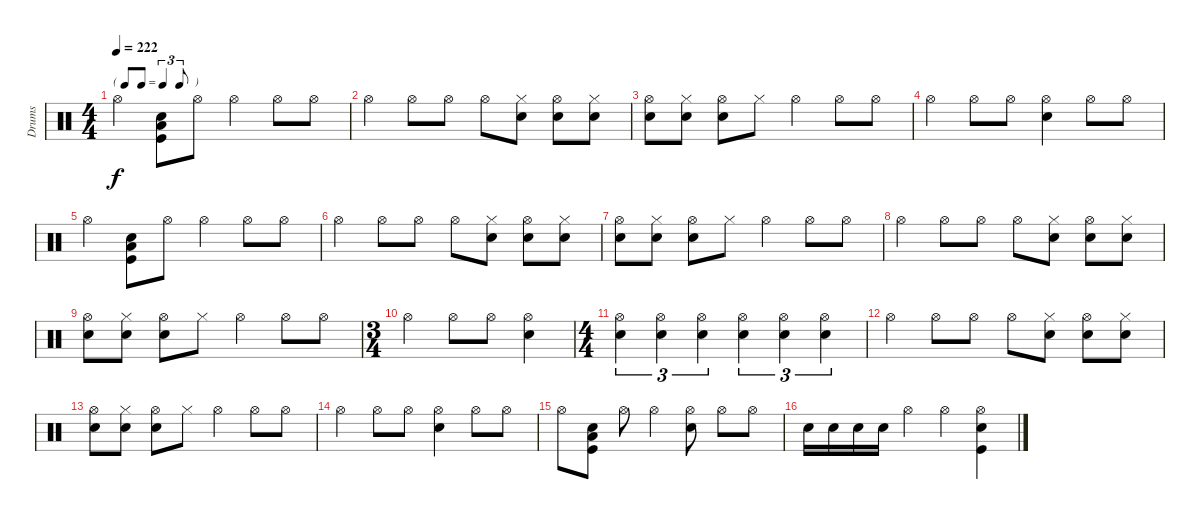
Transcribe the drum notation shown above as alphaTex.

\track ("Drums" "Drums") {instrument percussion}
\staff {score}
\articulation defaults
\ts (4 4)
\tf triplet8th
\tempo 222
\clef neutral
\ks c "Hi-Hat (open)".4{dy f}
("Kick (hit)" "Snare (hit) 2" "Low Floor Tom (hit)").8 "Hi-Hat (open)".8 "Hi-Hat (open)".4 "Hi-Hat (open)".8 "Hi-Hat (open)".8 |
"Hi-Hat (open)".4 "Hi-Hat (open)".8 "Hi-Hat (open)".8 "Hi-Hat (open)".8 ("Hi-Hat (closed)" "Snare (hit) 2").8 ("Snare (hit) 2" "Hi-Hat (open)").8 ("Hi-Hat (closed)" "Snare (hit) 2").8 |
("Snare (hit) 2" "Hi-Hat (open)").8 ("Snare (hit) 2" "Hi-Hat (closed)").8 ("Snare (hit) 2" "Hi-Hat (open)").8 "Hi-Hat (closed)".8 "Hi-Hat (open)".4 "Hi-Hat (open)".8 "Hi-Hat (open)".8 |
"Hi-Hat (open)".4 "Hi-Hat (open)".8 "Hi-Hat (open)".8 ("Snare (hit) 2" "Hi-Hat (open)").4 "Hi-Hat (open)".8 "Hi-Hat (open)".8 |
"Hi-Hat (open)".4 ("Kick (hit)" "Snare (hit) 2" "Low Floor Tom (hit)").8 "Hi-Hat (open)".8 "Hi-Hat (open)".4 "Hi-Hat (open)".8 "Hi-Hat (open)".8 |
"Hi-Hat (open)".4 "Hi-Hat (open)".8 "Hi-Hat (open)".8 "Hi-Hat (open)".8 ("Hi-Hat (closed)" "Snare (hit) 2").8 ("Snare (hit) 2" "Hi-Hat (open)").8 ("Hi-Hat (closed)" "Snare (hit) 2").8 |
("Snare (hit) 2" "Hi-Hat (open)").8 ("Snare (hit) 2" "Hi-Hat (closed)").8 ("Snare (hit) 2" "Hi-Hat (open)").8 "Hi-Hat (closed)".8 "Hi-Hat (open)".4 "Hi-Hat (open)".8 "Hi-Hat (open)".8 |
"Hi-Hat (open)".4 "Hi-Hat (open)".8 "Hi-Hat (open)".8 "Hi-Hat (open)".8 ("Hi-Hat (closed)" "Snare (hit) 2").8 ("Snare (hit) 2" "Hi-Hat (open)").8 ("Hi-Hat (closed)" "Snare (hit) 2").8 |
("Snare (hit) 2" "Hi-Hat (open)").8 ("Snare (hit) 2" "Hi-Hat (closed)").8 ("Snare (hit) 2" "Hi-Hat (open)").8 "Hi-Hat (closed)".8 "Hi-Hat (open)".4 "Hi-Hat (open)".8 "Hi-Hat (open)".8 |
\ts (3 4)
"Hi-Hat (open)".4 "Hi-Hat (open)".8 "Hi-Hat (open)".8 ("Snare (hit) 2" "Hi-Hat (open)").4 |
\ts (4 4)
("Hi-Hat (open)" "Snare (hit) 2").4{tu (3 2)} ("Hi-Hat (open)" "Snare (hit) 2").4{tu (3 2)} ("Hi-Hat (open)" "Snare (hit) 2").4{tu (3 2)} ("Hi-Hat (open)" "Snare (hit) 2").4{tu (3 2)} ("Hi-Hat (open)" "Snare (hit) 2").4{tu (3 2)} ("Hi-Hat (open)" "Snare (hit) 2").4{tu (3 2)} |
"Hi-Hat (open)".4 "Hi-Hat (open)".8 "Hi-Hat (open)".8 "Hi-Hat (open)".8 ("Hi-Hat (closed)" "Snare (hit) 2").8 ("Snare (hit) 2" "Hi-Hat (open)").8 ("Hi-Hat (closed)" "Snare (hit) 2").8 |
("Snare (hit) 2" "Hi-Hat (open)").8 ("Snare (hit) 2" "Hi-Hat (closed)").8 ("Snare (hit) 2" "Hi-Hat (open)").8 "Hi-Hat (closed)".8 "Hi-Hat (open)".4 "Hi-Hat (open)".8 "Hi-Hat (open)".8 |
"Hi-Hat (open)".4 "Hi-Hat (open)".8 "Hi-Hat (open)".8 ("Snare (hit) 2" "Hi-Hat (open)").4 "Hi-Hat (open)".8 "Hi-Hat (open)".8 |
"Hi-Hat (open)".8 ("Kick (hit)" "Snare (hit) 2" "Low Floor Tom (hit)").8 "Hi-Hat (open)".8 "Hi-Hat (open)".4 ("Snare (hit) 2" "Hi-Hat (open)").8 "Hi-Hat (open)".8 "Hi-Hat (open)".8 |
"Snare (hit) 2".16 "Snare (hit) 2".16 "Snare (hit) 2".16 "Snare (hit) 2".16 "Hi-Hat (open)".4 "Hi-Hat (open)".4 ("Snare (hit) 2" "Hi-Hat (open)" "Kick (hit)").4
